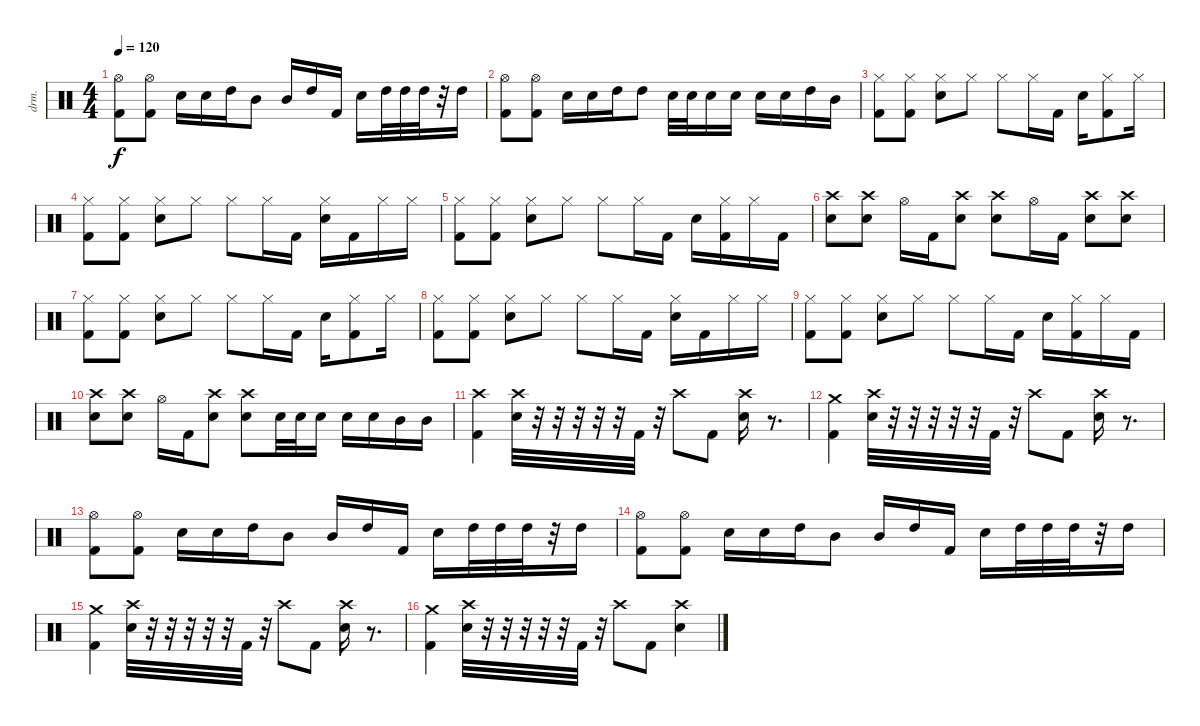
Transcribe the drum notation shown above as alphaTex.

\defaultSystemsLayout 4
\bracketExtendMode groupsimilarinstruments
\otherSystemsTrackNameOrientation horizontal
\track ("Drumkit" "drm.") {instrument percussion}
\staff {score}
\articulation defaults
\ts (4 4)
\tempo 120
\clef neutral
\ks c
("Kick (hit) 2" "Hi-Hat (open)").8{dy f beam Down} ("Hi-Hat (open)" "Kick (hit) 2").8{beam Down} "Snare (hit) 2".16{beam Down} "Snare (hit) 2".16{beam Down} "High Tom (hit)".16{beam Down} "Mid Tom (hit)".8{beam Down} "Mid Tom (hit)".16{beam Up} "High Tom (hit)".16{beam Up} "Kick (hit) 2".16{beam Up} "Snare (hit) 2".16{beam Down} "High Tom (hit)".32{beam Down} "High Tom (hit)".32{beam Down} "High Tom (hit)".32{beam Down} r.32{beam Down} "High Tom (hit)".16{beam Down} |
("Kick (hit) 2" "Hi-Hat (open)").8{beam Down} ("Hi-Hat (open)" "Kick (hit) 2").8{beam Down} "Snare (hit) 2".16{beam Down} "Snare (hit) 2".16{beam Down} "High Tom (hit)".16{beam Down} "High Tom (hit)".8{beam Down} "Snare (hit) 2".32{beam Down} "Snare (hit) 2".32{beam Down} "Snare (hit) 2".16{beam Down} "Snare (hit) 2".16{beam Down} "Snare (hit) 2".16{beam Down} "Snare (hit) 2".16{beam Down} "High Tom (hit)".16{beam Down} "Mid Tom (hit)".16{beam Down} |
("Kick (hit) 2" "Hi-Hat (closed)").8{beam Down} ("Kick (hit) 2" "Hi-Hat (closed)").8{beam Down} ("Hi-Hat (closed)" "Snare (hit) 2").8{beam Down} "Hi-Hat (closed)".8{beam Down} "Hi-Hat (closed)".8{beam Down} "Hi-Hat (closed)".16{beam Down} "Kick (hit) 2".16{beam Down} "Snare (hit) 2".16{beam Down} ("Hi-Hat (closed)" "Kick (hit) 2").8{beam Down} "Hi-Hat (closed)".16{beam Down} |
("Kick (hit) 2" "Hi-Hat (closed)").8{beam Down} ("Kick (hit) 2" "Hi-Hat (closed)").8{beam Down} ("Hi-Hat (closed)" "Snare (hit) 2").8{beam Down} "Hi-Hat (closed)".8{beam Down} "Hi-Hat (closed)".8{beam Down} "Hi-Hat (closed)".16{beam Down} "Kick (hit) 2".16{beam Down} ("Hi-Hat (closed)" "Snare (hit) 2").16{beam Down} "Kick (hit) 2".16{beam Down} "Hi-Hat (closed)".16{beam Down} "Hi-Hat (closed)".16{beam Down} |
("Kick (hit) 2" "Hi-Hat (closed)").8{beam Down} ("Kick (hit) 2" "Hi-Hat (closed)").8{beam Down} ("Hi-Hat (closed)" "Snare (hit) 2").8{beam Down} "Hi-Hat (closed)".8{beam Down} "Hi-Hat (closed)".8{beam Down} "Hi-Hat (closed)".16{beam Down} "Kick (hit) 2".16{beam Down} "Snare (hit) 2".16{beam Down} ("Hi-Hat (closed)" "Kick (hit) 2").16{beam Down} "Hi-Hat (closed)".16{beam Down} "Kick (hit) 2".16{beam Down} |
("Crash high (hit)" "Snare (hit) 2").8{beam Down} ("Crash high (hit)" "Snare (hit) 2").8{beam Down} "Hi-Hat (open)".16{beam Down} "Kick (hit) 2".16{beam Down} ("Snare (hit) 2" "Crash high (hit)").8{beam Down} ("Crash high (hit)" "Snare (hit) 2").8{beam Down} "Hi-Hat (open)".16{beam Down} "Kick (hit) 2".16{beam Down} ("Crash high (hit)" "Snare (hit) 2").8{beam Down} ("Crash high (hit)" "Snare (hit) 2").8{beam Down} |
("Kick (hit) 2" "Hi-Hat (closed)").8{beam Down} ("Kick (hit) 2" "Hi-Hat (closed)").8{beam Down} ("Hi-Hat (closed)" "Snare (hit) 2").8{beam Down} "Hi-Hat (closed)".8{beam Down} "Hi-Hat (closed)".8{beam Down} "Hi-Hat (closed)".16{beam Down} "Kick (hit) 2".16{beam Down} "Snare (hit) 2".16{beam Down} ("Hi-Hat (closed)" "Kick (hit) 2").8{beam Down} "Hi-Hat (closed)".16{beam Down} |
("Kick (hit) 2" "Hi-Hat (closed)").8{beam Down} ("Kick (hit) 2" "Hi-Hat (closed)").8{beam Down} ("Hi-Hat (closed)" "Snare (hit) 2").8{beam Down} "Hi-Hat (closed)".8{beam Down} "Hi-Hat (closed)".8{beam Down} "Hi-Hat (closed)".16{beam Down} "Kick (hit) 2".16{beam Down} ("Hi-Hat (closed)" "Snare (hit) 2").16{beam Down} "Kick (hit) 2".16{beam Down} "Hi-Hat (closed)".16{beam Down} "Hi-Hat (closed)".16{beam Down} |
("Kick (hit) 2" "Hi-Hat (closed)").8{beam Down} ("Kick (hit) 2" "Hi-Hat (closed)").8{beam Down} ("Hi-Hat (closed)" "Snare (hit) 2").8{beam Down} "Hi-Hat (closed)".8{beam Down} "Hi-Hat (closed)".8{beam Down} "Hi-Hat (closed)".16{beam Down} "Kick (hit) 2".16{beam Down} "Snare (hit) 2".16{beam Down} ("Hi-Hat (closed)" "Kick (hit) 2").16{beam Down} "Hi-Hat (closed)".16{beam Down} "Kick (hit) 2".16{beam Down} |
("Crash high (hit)" "Snare (hit) 2").8{beam Down} ("Crash high (hit)" "Snare (hit) 2").8{beam Down} "Hi-Hat (open)".16{beam Down} "Kick (hit) 2".16{beam Down} ("Snare (hit) 2" "Crash high (hit)").8{beam Down} ("Crash high (hit)" "Snare (hit) 2").8{beam Down} "Snare (hit) 2".32{beam Down} "Snare (hit) 2".32{beam Down} "Snare (hit) 2".16{beam Down} "Snare (hit) 2".16{beam Down} "Snare (hit) 2".16{beam Down} "Mid Tom (hit)".16{beam Down} "Mid Tom (hit)".16{beam Down} |
("Crash high (hit)" "Kick (hit) 2").4{beam Down} ("Crash high (hit)" "Snare (hit) 2").32{beam Down} r.32{beam Down} r.32{beam Down} r.32{beam Down} r.32{beam Down} r.32{beam Down} "Kick (hit) 2".32{beam Down} r.32{beam Down} "Crash high (hit)".8{beam Down} "Kick (hit) 2".8{beam Down} ("Crash high (hit)" "Snare (hit) 2").16{beam Down} r.8{d beam Down} |
("Crash medium (hit)" "Kick (hit) 2").4{beam Down} ("Crash high (hit)" "Snare (hit) 2").32{beam Down} r.32{beam Down} r.32{beam Down} r.32{beam Down} r.32{beam Down} r.32{beam Down} "Kick (hit) 2".32{beam Down} r.32{beam Down} "Crash high (hit)".8{beam Down} "Kick (hit) 2".8{beam Down} ("Crash high (hit)" "Snare (hit) 2").16{beam Down} r.8{d beam Down} |
("Kick (hit) 2" "Hi-Hat (open)").8{beam Down} ("Hi-Hat (open)" "Kick (hit) 2").8{beam Down} "Snare (hit) 2".16{beam Down} "Snare (hit) 2".16{beam Down} "High Tom (hit)".16{beam Down} "Mid Tom (hit)".8{beam Down} "Mid Tom (hit)".16{beam Up} "High Tom (hit)".16{beam Up} "Kick (hit) 2".16{beam Up} "Snare (hit) 2".16{beam Down} "High Tom (hit)".32{beam Down} "High Tom (hit)".32{beam Down} "High Tom (hit)".32{beam Down} r.32{beam Down} "High Tom (hit)".16{beam Down} |
("Kick (hit) 2" "Hi-Hat (open)").8{beam Down} ("Hi-Hat (open)" "Kick (hit) 2").8{beam Down} "Snare (hit) 2".16{beam Down} "Snare (hit) 2".16{beam Down} "High Tom (hit)".16{beam Down} "Mid Tom (hit)".8{beam Down} "Mid Tom (hit)".16{beam Up} "High Tom (hit)".16{beam Up} "Kick (hit) 2".16{beam Up} "Snare (hit) 2".16{beam Down} "High Tom (hit)".32{beam Down} "High Tom (hit)".32{beam Down} "High Tom (hit)".32{beam Down} r.32{beam Down} "High Tom (hit)".16{beam Down} |
("Crash medium (hit)" "Kick (hit) 2").4{beam Down} ("Crash high (hit)" "Snare (hit) 2").32{beam Down} r.32{beam Down} r.32{beam Down} r.32{beam Down} r.32{beam Down} r.32{beam Down} "Kick (hit) 2".32{beam Down} r.32{beam Down} "Crash high (hit)".8{beam Down} "Kick (hit) 2".8{beam Down} ("Crash high (hit)" "Snare (hit) 2").16{beam Down} r.8{d beam Down} |
("Crash medium (hit)" "Kick (hit) 2").4{beam Down} ("Crash high (hit)" "Snare (hit) 2").32{beam Down} r.32{beam Down} r.32{beam Down} r.32{beam Down} r.32{beam Down} r.32{beam Down} "Kick (hit) 2".32{beam Down} r.32{beam Down} "Crash high (hit)".8{beam Down} "Kick (hit) 2".8{beam Down} ("Crash high (hit)" "Snare (hit) 2").4{beam Down}
